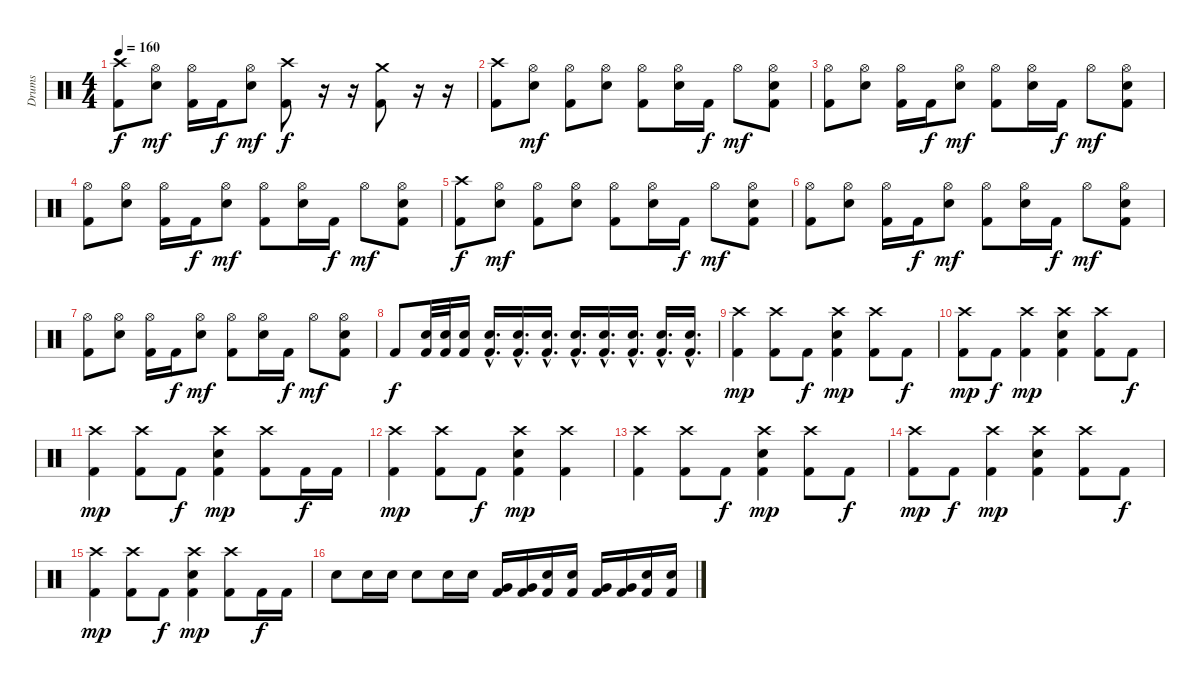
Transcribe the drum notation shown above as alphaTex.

\track ("Drums" "Drums") {instrument percussion}
\staff {score}
\articulation defaults
\ts (4 4)
\tempo 160
\clef neutral
\ks c
("Crash high (hit)" "Kick (hit) 2").8{dy f} ("Hi-Hat (open)" "Electric Snare (hit)").8{dy mf} ("Hi-Hat (open)" "Kick (hit) 2").16 "Kick (hit) 2".16{dy f} ("Hi-Hat (open)" "Electric Snare (hit)").8{dy mf} ("Crash high (hit)" "Kick (hit) 2").8{dy f} r.16 r.16 ("Crash medium (hit)" "Kick (hit) 2").8 r.16 r.16 |
("Crash high (hit)" "Kick (hit) 2").8 ("Hi-Hat (open)" "Electric Snare (hit)").8{dy mf} ("Hi-Hat (open)" "Kick (hit) 2").8 ("Hi-Hat (open)" "Electric Snare (hit)").8 ("Hi-Hat (open)" "Kick (hit) 2").8 ("Hi-Hat (open)" "Electric Snare (hit)").16 "Kick (hit) 2".16{dy f} "Hi-Hat (open)".8{dy mf} ("Hi-Hat (open)" "Electric Snare (hit)" "Kick (hit) 2").8 |
("Hi-Hat (open)" "Kick (hit) 2").8 ("Hi-Hat (open)" "Electric Snare (hit)").8 ("Hi-Hat (open)" "Kick (hit) 2").16 "Kick (hit) 2".16{dy f} ("Hi-Hat (open)" "Electric Snare (hit)").8{dy mf} ("Hi-Hat (open)" "Kick (hit) 2").8 ("Hi-Hat (open)" "Electric Snare (hit)").16 "Kick (hit) 2".16{dy f} "Hi-Hat (open)".8{dy mf} ("Hi-Hat (open)" "Electric Snare (hit)" "Kick (hit) 2").8 |
("Hi-Hat (open)" "Kick (hit) 2").8 ("Hi-Hat (open)" "Electric Snare (hit)").8 ("Hi-Hat (open)" "Kick (hit) 2").16 "Kick (hit) 2".16{dy f} ("Hi-Hat (open)" "Electric Snare (hit)").8{dy mf} ("Hi-Hat (open)" "Kick (hit) 2").8 ("Hi-Hat (open)" "Electric Snare (hit)").16 "Kick (hit) 2".16{dy f} "Hi-Hat (open)".8{dy mf} ("Hi-Hat (open)" "Electric Snare (hit)" "Kick (hit) 2").8 |
("Crash high (hit)" "Kick (hit) 2").8{dy f} ("Hi-Hat (open)" "Electric Snare (hit)").8{dy mf} ("Hi-Hat (open)" "Kick (hit) 2").8 ("Hi-Hat (open)" "Electric Snare (hit)").8 ("Hi-Hat (open)" "Kick (hit) 2").8 ("Hi-Hat (open)" "Electric Snare (hit)").16 "Kick (hit) 2".16{dy f} "Hi-Hat (open)".8{dy mf} ("Hi-Hat (open)" "Electric Snare (hit)" "Kick (hit) 2").8 |
("Hi-Hat (open)" "Kick (hit) 2").8 ("Hi-Hat (open)" "Electric Snare (hit)").8 ("Hi-Hat (open)" "Kick (hit) 2").16 "Kick (hit) 2".16{dy f} ("Hi-Hat (open)" "Electric Snare (hit)").8{dy mf} ("Hi-Hat (open)" "Kick (hit) 2").8 ("Hi-Hat (open)" "Electric Snare (hit)").16 "Kick (hit) 2".16{dy f} "Hi-Hat (open)".8{dy mf} ("Hi-Hat (open)" "Electric Snare (hit)" "Kick (hit) 2").8 |
("Hi-Hat (open)" "Kick (hit) 2").8 ("Hi-Hat (open)" "Electric Snare (hit)").8 ("Hi-Hat (open)" "Kick (hit) 2").16 "Kick (hit) 2".16{dy f} ("Hi-Hat (open)" "Electric Snare (hit)").8{dy mf} ("Hi-Hat (open)" "Kick (hit) 2").8 ("Hi-Hat (open)" "Electric Snare (hit)").16 "Kick (hit) 2".16{dy f} "Hi-Hat (open)".8{dy mf} ("Hi-Hat (open)" "Electric Snare (hit)" "Kick (hit) 2").8 |
"Kick (hit) 2".8{dy f} ("Electric Snare (hit)" "Kick (hit) 2").32 ("Electric Snare (hit)" "Kick (hit) 2").32 ("Electric Snare (hit)" "Kick (hit) 2").16 ("Electric Snare (hit)"{hac} "Kick (hit) 2"{hac}).16{d} ("Electric Snare (hit)"{hac} "Kick (hit) 2"{hac}).16{d} ("Electric Snare (hit)"{hac} "Kick (hit) 2"{hac}).16{d} ("Electric Snare (hit)"{hac} "Kick (hit) 2"{hac}).16{d} ("Electric Snare (hit)"{hac} "Kick (hit) 2"{hac}).16{d} ("Electric Snare (hit)"{hac} "Kick (hit) 2"{hac}).16{d} ("Electric Snare (hit)"{hac} "Kick (hit) 2"{hac}).16{d} ("Electric Snare (hit)"{hac} "Kick (hit) 2"{hac}).16{d} |
("Crash high (hit)" "Kick (hit) 2").4{dy mp} ("Crash high (hit)" "Kick (hit) 2").8 "Kick (hit) 2".8{dy f} ("Crash high (hit)" "Electric Snare (hit)" "Kick (hit) 2").4{dy mp} ("Crash high (hit)" "Kick (hit) 2").8 "Kick (hit) 2".8{dy f} |
("Crash high (hit)" "Kick (hit) 2").8{dy mp} "Kick (hit) 2".8{dy f} ("Crash high (hit)" "Kick (hit) 2").4{dy mp} ("Crash high (hit)" "Electric Snare (hit)" "Kick (hit) 2").4 ("Crash high (hit)" "Kick (hit) 2").8 "Kick (hit) 2".8{dy f} |
("Crash high (hit)" "Kick (hit) 2").4{dy mp} ("Crash high (hit)" "Kick (hit) 2").8 "Kick (hit) 2".8{dy f} ("Crash high (hit)" "Electric Snare (hit)" "Kick (hit) 2").4{dy mp} ("Crash high (hit)" "Kick (hit) 2").8 "Kick (hit) 2".16{dy f} "Kick (hit) 2".16 |
("Crash high (hit)" "Kick (hit) 2").4{dy mp} ("Crash high (hit)" "Kick (hit) 2").8 "Kick (hit) 2".8{dy f} ("Crash high (hit)" "Electric Snare (hit)" "Kick (hit) 2").4{dy mp} ("Crash high (hit)" "Kick (hit) 2").4 |
("Crash high (hit)" "Kick (hit) 2").4 ("Crash high (hit)" "Kick (hit) 2").8 "Kick (hit) 2".8{dy f} ("Crash high (hit)" "Electric Snare (hit)" "Kick (hit) 2").4{dy mp} ("Crash high (hit)" "Kick (hit) 2").8 "Kick (hit) 2".8{dy f} |
("Crash high (hit)" "Kick (hit) 2").8{dy mp} "Kick (hit) 2".8{dy f} ("Crash high (hit)" "Kick (hit) 2").4{dy mp} ("Crash high (hit)" "Electric Snare (hit)" "Kick (hit) 2").4 ("Crash high (hit)" "Kick (hit) 2").8 "Kick (hit) 2".8{dy f} |
("Crash high (hit)" "Kick (hit) 2").4{dy mp} ("Crash high (hit)" "Kick (hit) 2").8 "Kick (hit) 2".8{dy f} ("Crash high (hit)" "Electric Snare (hit)" "Kick (hit) 2").4{dy mp} ("Crash high (hit)" "Kick (hit) 2").8 "Kick (hit) 2".16{dy f} "Kick (hit) 2".16 |
"Electric Snare (hit)".8 "Electric Snare (hit)".16 "Electric Snare (hit)".16 "Electric Snare (hit)".8 "Electric Snare (hit)".16 "Electric Snare (hit)".16 ("Very Low Tom (hit)" "Kick (hit) 2").16 ("Very Low Tom (hit)" "Kick (hit) 2").16 ("Electric Snare (hit)" "Kick (hit) 2").16 ("Electric Snare (hit)" "Kick (hit) 2").16 ("Very Low Tom (hit)" "Kick (hit) 2").16 ("Very Low Tom (hit)" "Kick (hit) 2").16 ("Electric Snare (hit)" "Kick (hit) 2").16 ("Electric Snare (hit)" "Kick (hit) 2").16
